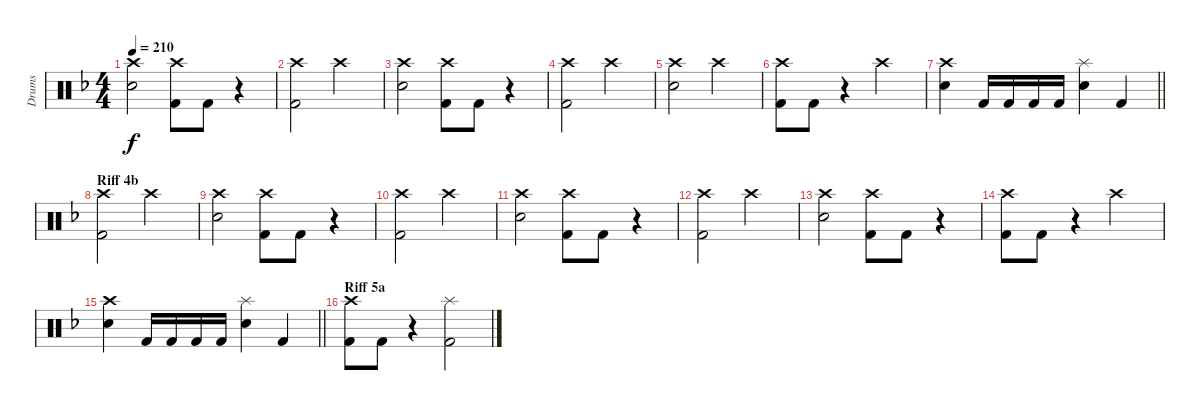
\track ("Drums" "Drums") {instrument percussion}
\staff {score}
\articulation defaults
\ts (4 4)
\tempo 210
\clef neutral
\ks dminor
("Crash high (hit)" "Electric Snare (hit)").2{dy f} ("Crash high (hit)" "Kick (hit) 2").8 "Kick (hit) 2".8 r.4 |
("Crash high (hit)" "Kick (hit) 2").2 "Crash high (hit)".2 |
("Crash high (hit)" "Electric Snare (hit)").2 ("Crash high (hit)" "Kick (hit) 2").8 "Kick (hit) 2".8 r.4 |
("Crash high (hit)" "Kick (hit) 2").2 "Crash high (hit)".2 |
("Crash high (hit)" "Electric Snare (hit)").2 "Crash high (hit)".2 |
("Crash high (hit)" "Kick (hit) 2").8 "Kick (hit) 2".8 r.4 "Crash high (hit)".2 |
\barLineRight lightlight
("Crash high (hit)" "Electric Snare (hit)").4 "Kick (hit) 2".16 "Kick (hit) 2".16 "Kick (hit) 2".16 "Kick (hit) 2".16 ("Splash (hit)" "Electric Snare (hit)").4 "Kick (hit) 2".4 |
\section ("" "Riff 4b")
("Crash high (hit)" "Kick (hit) 2").2 "Crash high (hit)".2 |
("Crash high (hit)" "Electric Snare (hit)").2 ("Crash high (hit)" "Kick (hit) 2").8 "Kick (hit) 2".8 r.4 |
("Crash high (hit)" "Kick (hit) 2").2 "Crash high (hit)".2 |
("Crash high (hit)" "Electric Snare (hit)").2 ("Crash high (hit)" "Kick (hit) 2").8 "Kick (hit) 2".8 r.4 |
("Crash high (hit)" "Kick (hit) 2").2 "Crash high (hit)".2 |
("Crash high (hit)" "Electric Snare (hit)").2 ("Crash high (hit)" "Kick (hit) 2").8 "Kick (hit) 2".8 r.4 |
("Crash high (hit)" "Kick (hit) 2").8 "Kick (hit) 2".8 r.4 "Crash high (hit)".2 |
\barLineRight lightlight
("Crash high (hit)" "Electric Snare (hit)").4 "Kick (hit) 2".16 "Kick (hit) 2".16 "Kick (hit) 2".16 "Kick (hit) 2".16 ("Splash (hit)" "Electric Snare (hit)").4 "Kick (hit) 2".4 |
\section ("" "Riff 5a")
("Crash high (hit)" "Kick (hit) 2").8 "Kick (hit) 2".8 r.4 ("Splash (hit)" "Kick (hit) 2").2
